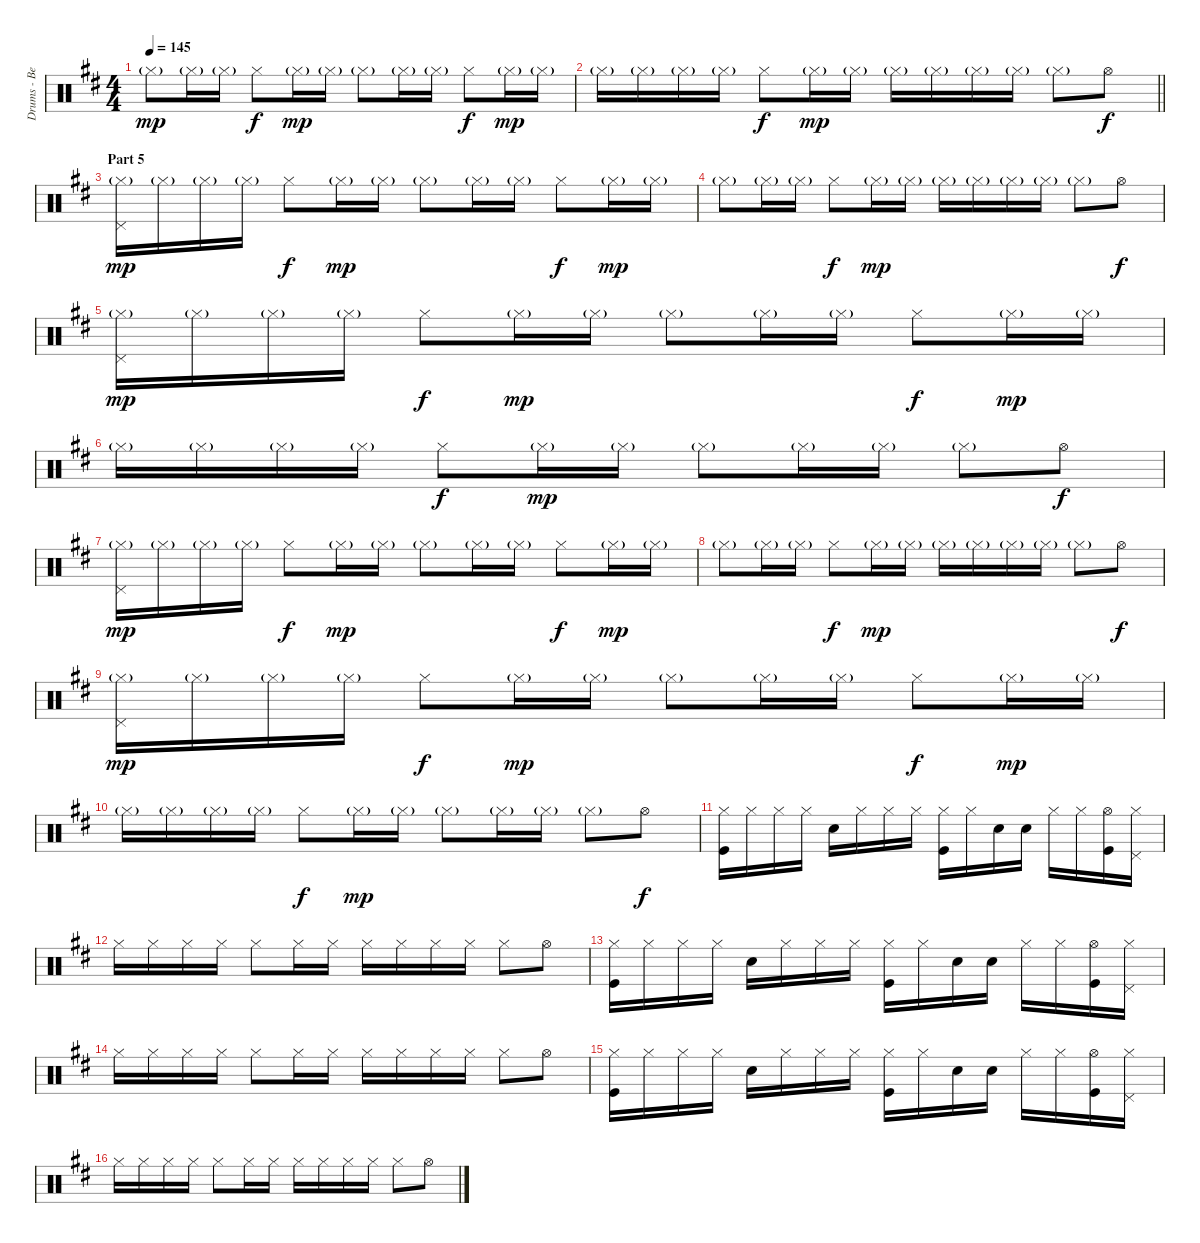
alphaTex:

\track ("Drums - Ben Johnston" "Drums - Be") {instrument percussion}
\staff {score}
\articulation defaults
\ts (4 4)
\tempo 145
\clef neutral
\ks d "Hi-Hat (closed)"{g}.8{dy mp} "Hi-Hat (closed)"{g}.16 "Hi-Hat (closed)"{g}.16 "Hi-Hat (closed)".8{dy f} "Hi-Hat (closed)"{g}.16{dy mp} "Hi-Hat (closed)"{g}.16 "Hi-Hat (closed)"{g}.8 "Hi-Hat (closed)"{g}.16 "Hi-Hat (closed)"{g}.16 "Hi-Hat (closed)".8{dy f} "Hi-Hat (closed)"{g}.16{dy mp} "Hi-Hat (closed)"{g}.16
|
\barLineRight lightlight "Hi-Hat (closed)"{g}.16 "Hi-Hat (closed)"{g}.16 "Hi-Hat (closed)"{g}.16 "Hi-Hat (closed)"{g}.16 "Hi-Hat (closed)".8{dy f} "Hi-Hat (closed)"{g}.16{dy mp} "Hi-Hat (closed)"{g}.16 "Hi-Hat (closed)"{g}.16 "Hi-Hat (closed)"{g}.16 "Hi-Hat (closed)"{g}.16 "Hi-Hat (closed)"{g}.16 "Hi-Hat (closed)"{g}.8 "Hi-Hat (open)".8{dy f}
|
\section ("" "Part 5")
("Hi-Hat (closed)"{g} "Pedal Hi-Hat (hit)").16{dy mp} "Hi-Hat (closed)"{g}.16 "Hi-Hat (closed)"{g}.16 "Hi-Hat (closed)"{g}.16 "Hi-Hat (closed)".8{dy f} "Hi-Hat (closed)"{g}.16{dy mp} "Hi-Hat (closed)"{g}.16 "Hi-Hat (closed)"{g}.8 "Hi-Hat (closed)"{g}.16 "Hi-Hat (closed)"{g}.16 "Hi-Hat (closed)".8{dy f} "Hi-Hat (closed)"{g}.16{dy mp} "Hi-Hat (closed)"{g}.16 |
"Hi-Hat (closed)"{g}.8 "Hi-Hat (closed)"{g}.16 "Hi-Hat (closed)"{g}.16 "Hi-Hat (closed)".8{dy f} "Hi-Hat (closed)"{g}.16{dy mp} "Hi-Hat (closed)"{g}.16 "Hi-Hat (closed)"{g}.16 "Hi-Hat (closed)"{g}.16 "Hi-Hat (closed)"{g}.16 "Hi-Hat (closed)"{g}.16 "Hi-Hat (closed)"{g}.8 "Hi-Hat (open)".8{dy f} |
("Hi-Hat (closed)"{g} "Pedal Hi-Hat (hit)").16{dy mp} "Hi-Hat (closed)"{g}.16 "Hi-Hat (closed)"{g}.16 "Hi-Hat (closed)"{g}.16 "Hi-Hat (closed)".8{dy f} "Hi-Hat (closed)"{g}.16{dy mp} "Hi-Hat (closed)"{g}.16 "Hi-Hat (closed)"{g}.8 "Hi-Hat (closed)"{g}.16 "Hi-Hat (closed)"{g}.16 "Hi-Hat (closed)".8{dy f} "Hi-Hat (closed)"{g}.16{dy mp} "Hi-Hat (closed)"{g}.16 |
"Hi-Hat (closed)"{g}.16 "Hi-Hat (closed)"{g}.16 "Hi-Hat (closed)"{g}.16 "Hi-Hat (closed)"{g}.16 "Hi-Hat (closed)".8{dy f} "Hi-Hat (closed)"{g}.16{dy mp} "Hi-Hat (closed)"{g}.16 "Hi-Hat (closed)"{g}.8 "Hi-Hat (closed)"{g}.16 "Hi-Hat (closed)"{g}.16 "Hi-Hat (closed)"{g}.8 "Hi-Hat (open)".8{dy f} |
("Hi-Hat (closed)"{g} "Pedal Hi-Hat (hit)").16{dy mp} "Hi-Hat (closed)"{g}.16 "Hi-Hat (closed)"{g}.16 "Hi-Hat (closed)"{g}.16 "Hi-Hat (closed)".8{dy f} "Hi-Hat (closed)"{g}.16{dy mp} "Hi-Hat (closed)"{g}.16 "Hi-Hat (closed)"{g}.8 "Hi-Hat (closed)"{g}.16 "Hi-Hat (closed)"{g}.16 "Hi-Hat (closed)".8{dy f} "Hi-Hat (closed)"{g}.16{dy mp} "Hi-Hat (closed)"{g}.16 |
"Hi-Hat (closed)"{g}.8 "Hi-Hat (closed)"{g}.16 "Hi-Hat (closed)"{g}.16 "Hi-Hat (closed)".8{dy f} "Hi-Hat (closed)"{g}.16{dy mp} "Hi-Hat (closed)"{g}.16 "Hi-Hat (closed)"{g}.16 "Hi-Hat (closed)"{g}.16 "Hi-Hat (closed)"{g}.16 "Hi-Hat (closed)"{g}.16 "Hi-Hat (closed)"{g}.8 "Hi-Hat (open)".8{dy f} |
("Hi-Hat (closed)"{g} "Pedal Hi-Hat (hit)").16{dy mp} "Hi-Hat (closed)"{g}.16 "Hi-Hat (closed)"{g}.16 "Hi-Hat (closed)"{g}.16 "Hi-Hat (closed)".8{dy f} "Hi-Hat (closed)"{g}.16{dy mp} "Hi-Hat (closed)"{g}.16 "Hi-Hat (closed)"{g}.8 "Hi-Hat (closed)"{g}.16 "Hi-Hat (closed)"{g}.16 "Hi-Hat (closed)".8{dy f} "Hi-Hat (closed)"{g}.16{dy mp} "Hi-Hat (closed)"{g}.16 |
"Hi-Hat (closed)"{g}.16 "Hi-Hat (closed)"{g}.16 "Hi-Hat (closed)"{g}.16 "Hi-Hat (closed)"{g}.16 "Hi-Hat (closed)".8{dy f} "Hi-Hat (closed)"{g}.16{dy mp} "Hi-Hat (closed)"{g}.16 "Hi-Hat (closed)"{g}.8 "Hi-Hat (closed)"{g}.16 "Hi-Hat (closed)"{g}.16 "Hi-Hat (closed)"{g}.8 "Hi-Hat (open)".8{dy f} |
("Hi-Hat (closed)" "Kick (hit)").16 "Hi-Hat (closed)".16 "Hi-Hat (closed)".16 "Hi-Hat (closed)".16 "Snare (hit) 2".16 "Hi-Hat (closed)".16 "Hi-Hat (closed)".16 "Hi-Hat (closed)".16 ("Hi-Hat (closed)" "Kick (hit)").16 "Hi-Hat (closed)".16 "Snare (hit) 2".16 "Snare (hit) 2".16 "Hi-Hat (closed)".16 "Hi-Hat (closed)".16 ("Hi-Hat (open)" "Kick (hit)").16 ("Hi-Hat (closed)" "Pedal Hi-Hat (hit)").16 |
"Hi-Hat (closed)".16 "Hi-Hat (closed)".16 "Hi-Hat (closed)".16 "Hi-Hat (closed)".16 "Hi-Hat (closed)".8 "Hi-Hat (closed)".16 "Hi-Hat (closed)".16 "Hi-Hat (closed)".16 "Hi-Hat (closed)".16 "Hi-Hat (closed)".16 "Hi-Hat (closed)".16 "Hi-Hat (closed)".8 "Hi-Hat (open)".8 |
("Hi-Hat (closed)" "Kick (hit)").16 "Hi-Hat (closed)".16 "Hi-Hat (closed)".16 "Hi-Hat (closed)".16 "Snare (hit) 2".16 "Hi-Hat (closed)".16 "Hi-Hat (closed)".16 "Hi-Hat (closed)".16 ("Hi-Hat (closed)" "Kick (hit)").16 "Hi-Hat (closed)".16 "Snare (hit) 2".16 "Snare (hit) 2".16 "Hi-Hat (closed)".16 "Hi-Hat (closed)".16 ("Hi-Hat (open)" "Kick (hit)").16 ("Hi-Hat (closed)" "Pedal Hi-Hat (hit)").16 |
"Hi-Hat (closed)".16 "Hi-Hat (closed)".16 "Hi-Hat (closed)".16 "Hi-Hat (closed)".16 "Hi-Hat (closed)".8 "Hi-Hat (closed)".16 "Hi-Hat (closed)".16 "Hi-Hat (closed)".16 "Hi-Hat (closed)".16 "Hi-Hat (closed)".16 "Hi-Hat (closed)".16 "Hi-Hat (closed)".8 "Hi-Hat (open)".8 |
("Hi-Hat (closed)" "Kick (hit)").16 "Hi-Hat (closed)".16 "Hi-Hat (closed)".16 "Hi-Hat (closed)".16 "Snare (hit) 2".16 "Hi-Hat (closed)".16 "Hi-Hat (closed)".16 "Hi-Hat (closed)".16 ("Hi-Hat (closed)" "Kick (hit)").16 "Hi-Hat (closed)".16 "Snare (hit) 2".16 "Snare (hit) 2".16 "Hi-Hat (closed)".16 "Hi-Hat (closed)".16 ("Hi-Hat (open)" "Kick (hit)").16 ("Hi-Hat (closed)" "Pedal Hi-Hat (hit)").16 |
"Hi-Hat (closed)".16 "Hi-Hat (closed)".16 "Hi-Hat (closed)".16 "Hi-Hat (closed)".16 "Hi-Hat (closed)".8 "Hi-Hat (closed)".16 "Hi-Hat (closed)".16 "Hi-Hat (closed)".16 "Hi-Hat (closed)".16 "Hi-Hat (closed)".16 "Hi-Hat (closed)".16 "Hi-Hat (closed)".8 "Hi-Hat (open)".8
